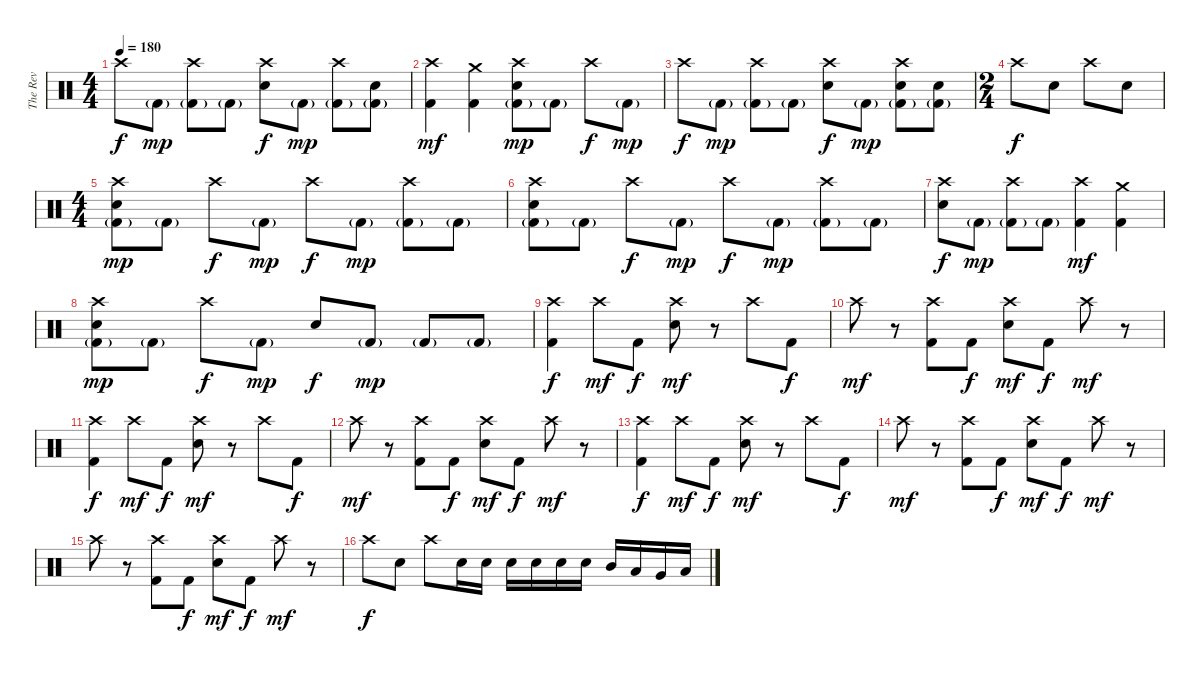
\track ("The Rev" "The Rev") {instrument percussion}
\staff {score}
\articulation defaults
\ts (4 4)
\tempo 180
\clef neutral
\ks c "Crash high (hit)".8{dy f} "Kick (hit) 2"{g}.8{dy mp}
("Crash high (hit)" "Kick (hit) 2"{g}).8 "Kick (hit) 2"{g}.8 ("Crash high (hit)" "Snare (hit) 2").8{dy f} "Kick (hit) 2"{g}.8{dy mp} ("Crash high (hit)" "Kick (hit) 2"{g}).8 ("Snare (hit) 2" "Kick (hit) 2"{g}).8 |
("Crash high (hit)" "Kick (hit) 2").4{dy mf} ("Crash medium (hit)" "Kick (hit) 2").4 ("Crash high (hit)" "Snare (hit) 2" "Kick (hit) 2"{g}).8{dy mp} "Kick (hit) 2"{g}.8 "Crash high (hit)".8{dy f} "Kick (hit) 2"{g}.8{dy mp} |
"Crash high (hit)".8{dy f} "Kick (hit) 2"{g}.8{dy mp} ("Crash high (hit)" "Kick (hit) 2"{g}).8 "Kick (hit) 2"{g}.8 ("Crash high (hit)" "Snare (hit) 2").8{dy f} "Kick (hit) 2"{g}.8{dy mp} ("Crash high (hit)" "Snare (hit) 2" "Kick (hit) 2"{g}).8 ("Snare (hit) 2" "Kick (hit) 2"{g}).8 |
\ts (2 4)
"Crash high (hit)".8{dy f} "Snare (hit) 2".8 "Crash high (hit)".8 "Snare (hit) 2".8 |
\ts (4 4)
("Crash high (hit)" "Snare (hit) 2" "Kick (hit) 2"{g}).8{dy mp} "Kick (hit) 2"{g}.8 "Crash high (hit)".8{dy f} "Kick (hit) 2"{g}.8{dy mp} "Crash high (hit)".8{dy f} "Kick (hit) 2"{g}.8{dy mp} ("Crash high (hit)" "Kick (hit) 2"{g}).8 "Kick (hit) 2"{g}.8 |
("Crash high (hit)" "Snare (hit) 2" "Kick (hit) 2"{g}).8 "Kick (hit) 2"{g}.8 "Crash high (hit)".8{dy f} "Kick (hit) 2"{g}.8{dy mp} "Crash high (hit)".8{dy f} "Kick (hit) 2"{g}.8{dy mp} ("Crash high (hit)" "Kick (hit) 2"{g}).8 "Kick (hit) 2"{g}.8 |
("Crash high (hit)" "Snare (hit) 2").8{dy f} "Kick (hit) 2"{g}.8{dy mp} ("Crash high (hit)" "Kick (hit) 2"{g}).8 "Kick (hit) 2"{g}.8 ("Crash high (hit)" "Kick (hit) 2").4{dy mf} ("Crash medium (hit)" "Kick (hit) 2").4 |
("Crash high (hit)" "Snare (hit) 2" "Kick (hit) 2"{g}).8{dy mp} "Kick (hit) 2"{g}.8 "Crash high (hit)".8{dy f} "Kick (hit) 2"{g}.8{dy mp} "Snare (hit) 2".8{dy f} "Kick (hit) 2"{g}.8{dy mp} "Kick (hit) 2"{g}.8 "Kick (hit) 2"{g}.8 |
("Crash high (hit)" "Kick (hit) 2").4{dy f} "Crash high (hit)".8{dy mf} "Kick (hit) 2".8{dy f} ("Crash high (hit)" "Snare (hit) 2").8{dy mf} r.8 "Crash high (hit)".8 "Kick (hit) 2".8{dy f} |
"Crash high (hit)".8{dy mf} r.8 ("Crash high (hit)" "Kick (hit) 2").8 "Kick (hit) 2".8{dy f} ("Crash high (hit)" "Snare (hit) 2").8{dy mf} "Kick (hit) 2".8{dy f} "Crash high (hit)".8{dy mf} r.8 |
("Crash high (hit)" "Kick (hit) 2").4{dy f} "Crash high (hit)".8{dy mf} "Kick (hit) 2".8{dy f} ("Crash high (hit)" "Snare (hit) 2").8{dy mf} r.8 "Crash high (hit)".8 "Kick (hit) 2".8{dy f} |
"Crash high (hit)".8{dy mf} r.8 ("Crash high (hit)" "Kick (hit) 2").8 "Kick (hit) 2".8{dy f} ("Crash high (hit)" "Snare (hit) 2").8{dy mf} "Kick (hit) 2".8{dy f} "Crash high (hit)".8{dy mf} r.8 |
("Crash high (hit)" "Kick (hit) 2").4{dy f} "Crash high (hit)".8{dy mf} "Kick (hit) 2".8{dy f} ("Crash high (hit)" "Snare (hit) 2").8{dy mf} r.8 "Crash high (hit)".8 "Kick (hit) 2".8{dy f} |
"Crash high (hit)".8{dy mf} r.8 ("Crash high (hit)" "Kick (hit) 2").8 "Kick (hit) 2".8{dy f} ("Crash high (hit)" "Snare (hit) 2").8{dy mf} "Kick (hit) 2".8{dy f} "Crash high (hit)".8{dy mf} r.8 |
"Crash high (hit)".8 r.8 ("Crash high (hit)" "Kick (hit) 2").8 "Kick (hit) 2".8{dy f} ("Crash high (hit)" "Snare (hit) 2").8{dy mf} "Kick (hit) 2".8{dy f} "Crash high (hit)".8{dy mf} r.8 |
"Crash high (hit)".8{dy f} "Snare (hit) 2".8 "Crash high (hit)".8 "Snare (hit) 2".16 "Snare (hit) 2".16 "Snare (hit) 2".16 "Snare (hit) 2".16 "Snare (hit) 2".16 "Snare (hit) 2".16 "Mid Tom (hit)".16 "Low Tom (hit)".16 "Very Low Tom (hit)".16 "Low Floor Tom (hit)".16
